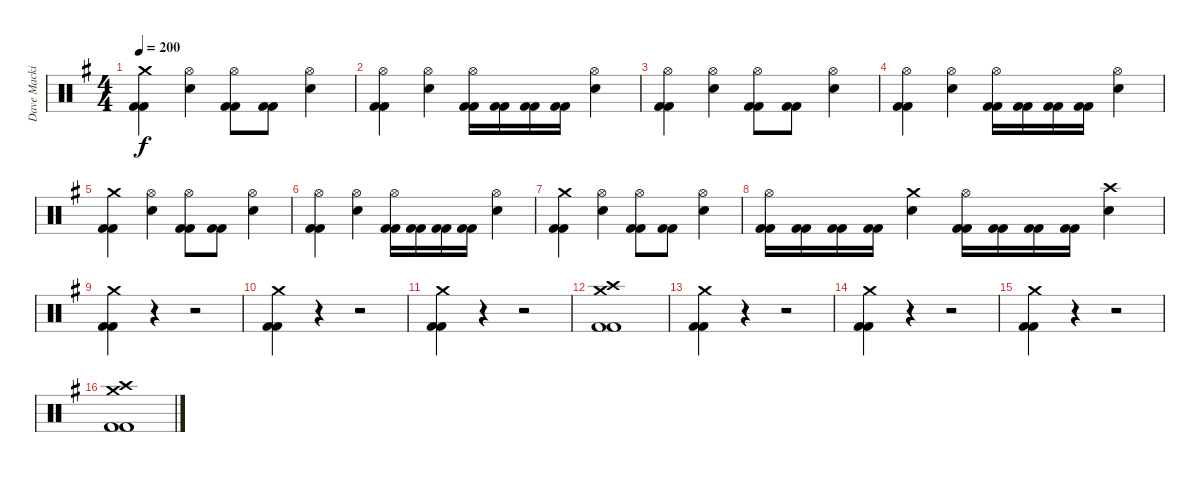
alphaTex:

\track ("Dave Mackintosh" "Dave Macki") {instrument percussion}
\staff {score}
\articulation defaults
\ts (4 4)
\tempo 200
\clef neutral
\ks g
("Crash medium (hit)" "Kick (hit) 2" "Kick (hit) 2").4{dy f} ("Hi-Hat (open)" "Electric Snare (hit)").4 ("Hi-Hat (open)" "Kick (hit) 2" "Kick (hit) 2").8 ("Kick (hit) 2" "Kick (hit) 2").8 ("Hi-Hat (open)" "Electric Snare (hit)").4 |
("Hi-Hat (open)" "Kick (hit) 2" "Kick (hit) 2").4 ("Hi-Hat (open)" "Electric Snare (hit)").4 ("Hi-Hat (open)" "Kick (hit) 2" "Kick (hit) 2").16 ("Kick (hit) 2" "Kick (hit) 2").16 ("Kick (hit) 2" "Kick (hit) 2").16 ("Kick (hit) 2" "Kick (hit) 2").16 ("Hi-Hat (open)" "Electric Snare (hit)").4 |
("Hi-Hat (open)" "Kick (hit) 2" "Kick (hit) 2").4 ("Hi-Hat (open)" "Electric Snare (hit)").4 ("Hi-Hat (open)" "Kick (hit) 2" "Kick (hit) 2").8 ("Kick (hit) 2" "Kick (hit) 2").8 ("Hi-Hat (open)" "Electric Snare (hit)").4 |
("Hi-Hat (open)" "Kick (hit) 2" "Kick (hit) 2").4 ("Hi-Hat (open)" "Electric Snare (hit)").4 ("Hi-Hat (open)" "Kick (hit) 2" "Kick (hit) 2").16 ("Kick (hit) 2" "Kick (hit) 2").16 ("Kick (hit) 2" "Kick (hit) 2").16 ("Kick (hit) 2" "Kick (hit) 2").16 ("Hi-Hat (open)" "Electric Snare (hit)").4 |
("Crash medium (hit)" "Kick (hit) 2" "Kick (hit) 2").4 ("Hi-Hat (open)" "Electric Snare (hit)").4 ("Hi-Hat (open)" "Kick (hit) 2" "Kick (hit) 2").8 ("Kick (hit) 2" "Kick (hit) 2").8 ("Hi-Hat (open)" "Electric Snare (hit)").4 |
("Hi-Hat (open)" "Kick (hit) 2" "Kick (hit) 2").4 ("Hi-Hat (open)" "Electric Snare (hit)").4 ("Hi-Hat (open)" "Kick (hit) 2" "Kick (hit) 2").16 ("Kick (hit) 2" "Kick (hit) 2").16 ("Kick (hit) 2" "Kick (hit) 2").16 ("Kick (hit) 2" "Kick (hit) 2").16 ("Hi-Hat (open)" "Electric Snare (hit)").4 |
("Crash medium (hit)" "Kick (hit) 2" "Kick (hit) 2").4 ("Hi-Hat (open)" "Electric Snare (hit)").4 ("Hi-Hat (open)" "Kick (hit) 2" "Kick (hit) 2").8 ("Kick (hit) 2" "Kick (hit) 2").8 ("Hi-Hat (open)" "Electric Snare (hit)").4 |
("Hi-Hat (open)" "Kick (hit) 2" "Kick (hit) 2").16 ("Kick (hit) 2" "Kick (hit) 2").16 ("Kick (hit) 2" "Kick (hit) 2").16 ("Kick (hit) 2" "Kick (hit) 2").16 ("Crash medium (hit)" "Electric Snare (hit)").4 ("Hi-Hat (open)" "Kick (hit) 2" "Kick (hit) 2").16 ("Kick (hit) 2" "Kick (hit) 2").16 ("Kick (hit) 2" "Kick (hit) 2").16 ("Kick (hit) 2" "Kick (hit) 2").16 ("Crash high (hit)" "Electric Snare (hit)").4 |
("Crash medium (hit)" "Kick (hit) 2" "Kick (hit) 2").4 r.4{volume 0} r.2 |
("Crash medium (hit)" "Kick (hit) 2" "Kick (hit) 2").4{volume 16} r.4{volume 0} r.2 |
("Crash medium (hit)" "Kick (hit) 2" "Kick (hit) 2").4{volume 16} r.4{volume 0} r.2 |
("Crash medium (hit)" "Crash high (hit)" "Kick (hit) 2" "Kick (hit) 2").1{volume 16} |
("Crash medium (hit)" "Kick (hit) 2" "Kick (hit) 2").4 r.4{volume 0} r.2 |
("Crash medium (hit)" "Kick (hit) 2" "Kick (hit) 2").4{volume 16} r.4{volume 0} r.2 |
("Crash medium (hit)" "Kick (hit) 2" "Kick (hit) 2").4{volume 16} r.4{volume 0} r.2 |
("Crash medium (hit)" "Crash high (hit)" "Kick (hit) 2" "Kick (hit) 2").1{volume 16}
